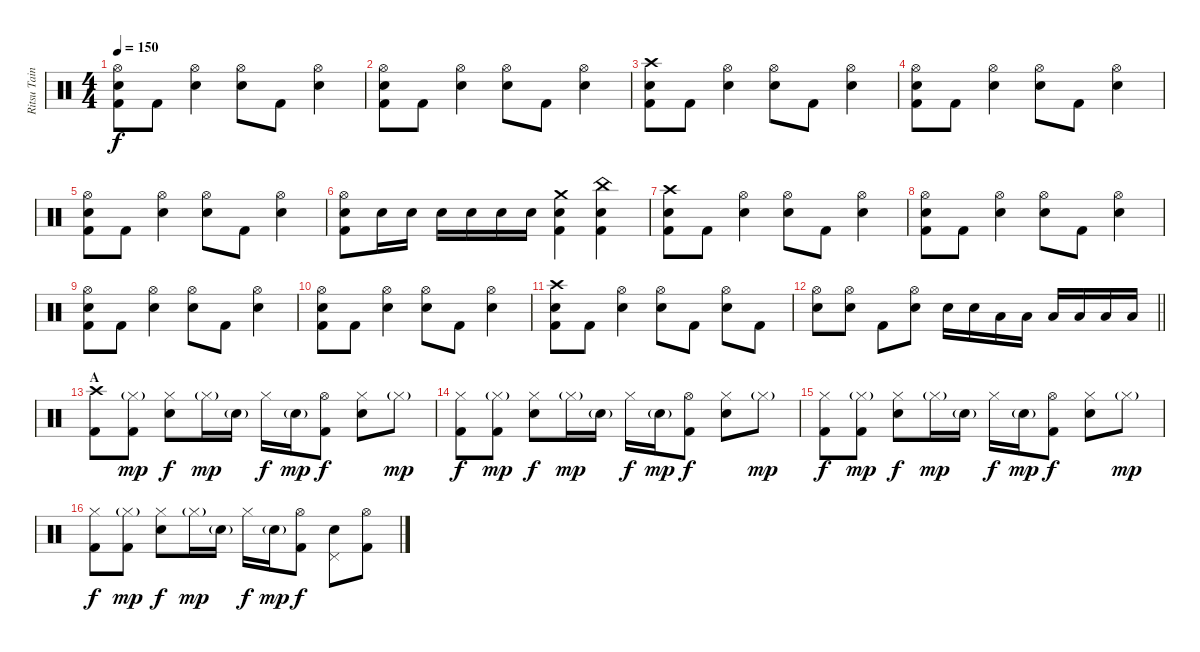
\track ("Ritsu Tainaka" "Ritsu Tain") {instrument percussion}
\staff {score}
\articulation defaults
\ts (4 4)
\tempo 150
\clef neutral
\ks c
("Hi-Hat (open)" "Electric Snare (hit)" "Kick (hit) 2").8{dy f} "Kick (hit) 2".8 ("Hi-Hat (open)" "Electric Snare (hit)").4 ("Hi-Hat (open)" "Electric Snare (hit)").8 "Kick (hit) 2".8 ("Hi-Hat (open)" "Electric Snare (hit)").4 |
("Hi-Hat (open)" "Electric Snare (hit)" "Kick (hit) 2").8 "Kick (hit) 2".8 ("Hi-Hat (open)" "Electric Snare (hit)").4 ("Hi-Hat (open)" "Electric Snare (hit)").8 "Kick (hit) 2".8 ("Hi-Hat (open)" "Electric Snare (hit)").4 |
("Crash high (hit)" "Electric Snare (hit)" "Kick (hit) 2").8 "Kick (hit) 2".8 ("Hi-Hat (open)" "Electric Snare (hit)").4 ("Hi-Hat (open)" "Electric Snare (hit)").8 "Kick (hit) 2".8 ("Hi-Hat (open)" "Electric Snare (hit)").4 |
("Hi-Hat (open)" "Electric Snare (hit)" "Kick (hit) 2").8 "Kick (hit) 2".8 ("Hi-Hat (open)" "Electric Snare (hit)").4 ("Hi-Hat (open)" "Electric Snare (hit)").8 "Kick (hit) 2".8 ("Hi-Hat (open)" "Electric Snare (hit)").4 |
("Hi-Hat (open)" "Electric Snare (hit)" "Kick (hit) 2").8 "Kick (hit) 2".8 ("Hi-Hat (open)" "Electric Snare (hit)").4 ("Hi-Hat (open)" "Electric Snare (hit)").8 "Kick (hit) 2".8 ("Hi-Hat (open)" "Electric Snare (hit)").4 |
("Hi-Hat (open)" "Electric Snare (hit)" "Kick (hit) 2").8 "Electric Snare (hit)".16 "Electric Snare (hit)".16 "Electric Snare (hit)".16 "Electric Snare (hit)".16 "Electric Snare (hit)".16 "Electric Snare (hit)".16 ("Crash medium (hit)" "Electric Snare (hit)" "Kick (hit) 2").4 ("China (hit)" "Electric Snare (hit)" "Kick (hit) 2").4 |
("Crash high (hit)" "Electric Snare (hit)" "Kick (hit) 2").8 "Kick (hit) 2".8 ("Hi-Hat (open)" "Electric Snare (hit)").4 ("Hi-Hat (open)" "Electric Snare (hit)").8 "Kick (hit) 2".8 ("Hi-Hat (open)" "Electric Snare (hit)").4 |
("Hi-Hat (open)" "Electric Snare (hit)" "Kick (hit) 2").8 "Kick (hit) 2".8 ("Hi-Hat (open)" "Electric Snare (hit)").4 ("Hi-Hat (open)" "Electric Snare (hit)").8 "Kick (hit) 2".8 ("Hi-Hat (open)" "Electric Snare (hit)").4 |
("Hi-Hat (open)" "Electric Snare (hit)" "Kick (hit) 2").8 "Kick (hit) 2".8 ("Hi-Hat (open)" "Electric Snare (hit)").4 ("Hi-Hat (open)" "Electric Snare (hit)").8 "Kick (hit) 2".8 ("Hi-Hat (open)" "Electric Snare (hit)").4 |
("Hi-Hat (open)" "Electric Snare (hit)" "Kick (hit) 2").8 "Kick (hit) 2".8 ("Hi-Hat (open)" "Electric Snare (hit)").4 ("Hi-Hat (open)" "Electric Snare (hit)").8 "Kick (hit) 2".8 ("Hi-Hat (open)" "Electric Snare (hit)").4 |
("Crash high (hit)" "Electric Snare (hit)" "Kick (hit) 2").8 "Kick (hit) 2".8 ("Hi-Hat (open)" "Electric Snare (hit)").4 ("Hi-Hat (open)" "Electric Snare (hit)").8 "Kick (hit) 2".8 ("Hi-Hat (open)" "Electric Snare (hit)").8 "Kick (hit) 2".8 |
\barLineRight lightlight
("Hi-Hat (open)" "Electric Snare (hit)").8 ("Hi-Hat (open)" "Electric Snare (hit)").8 "Kick (hit) 2".8 ("Hi-Hat (open)" "Electric Snare (hit)").8 "Electric Snare (hit)".16 "Electric Snare (hit)".16 "Low Tom (hit)".16 "Low Tom (hit)".16 "Low Tom (hit)".16 "Low Floor Tom (hit)".16 "Low Floor Tom (hit)".16 "Low Floor Tom (hit)".16 |
\section ("" "A")
("Crash high (hit)" "Kick (hit) 2").8 ("Hi-Hat (closed)"{g} "Kick (hit) 2").8{dy mp} ("Hi-Hat (closed)" "Electric Snare (hit)").8{dy f} "Hi-Hat (closed)"{g}.16{dy mp} "Electric Snare (hit)"{g}.16 "Hi-Hat (closed)".16{dy f} "Electric Snare (hit)"{g}.16{dy mp} ("Hi-Hat (open)" "Kick (hit) 2").8{dy f} ("Hi-Hat (closed)" "Electric Snare (hit)").8 "Hi-Hat (closed)"{g}.8{dy mp} |
("Hi-Hat (closed)" "Kick (hit) 2").8{dy f} ("Hi-Hat (closed)"{g} "Kick (hit) 2").8{dy mp} ("Hi-Hat (closed)" "Electric Snare (hit)").8{dy f} "Hi-Hat (closed)"{g}.16{dy mp} "Electric Snare (hit)"{g}.16 "Hi-Hat (closed)".16{dy f} "Electric Snare (hit)"{g}.16{dy mp} ("Hi-Hat (open)" "Kick (hit) 2").8{dy f} ("Hi-Hat (closed)" "Electric Snare (hit)").8 "Hi-Hat (closed)"{g}.8{dy mp} |
("Hi-Hat (closed)" "Kick (hit) 2").8{dy f} ("Hi-Hat (closed)"{g} "Kick (hit) 2").8{dy mp} ("Hi-Hat (closed)" "Electric Snare (hit)").8{dy f} "Hi-Hat (closed)"{g}.16{dy mp} "Electric Snare (hit)"{g}.16 "Hi-Hat (closed)".16{dy f} "Electric Snare (hit)"{g}.16{dy mp} ("Hi-Hat (open)" "Kick (hit) 2").8{dy f} ("Hi-Hat (closed)" "Electric Snare (hit)").8 "Hi-Hat (closed)"{g}.8{dy mp} |
("Hi-Hat (closed)" "Kick (hit) 2").8{dy f} ("Hi-Hat (closed)"{g} "Kick (hit) 2").8{dy mp} ("Hi-Hat (closed)" "Electric Snare (hit)").8{dy f} "Hi-Hat (closed)"{g}.16{dy mp} "Electric Snare (hit)"{g}.16 "Hi-Hat (closed)".16{dy f} "Electric Snare (hit)"{g}.16{dy mp} ("Hi-Hat (open)" "Kick (hit) 2").8{dy f} ("Pedal Hi-Hat (hit)" "Electric Snare (hit)").8 ("Hi-Hat (open)" "Kick (hit) 2").8
